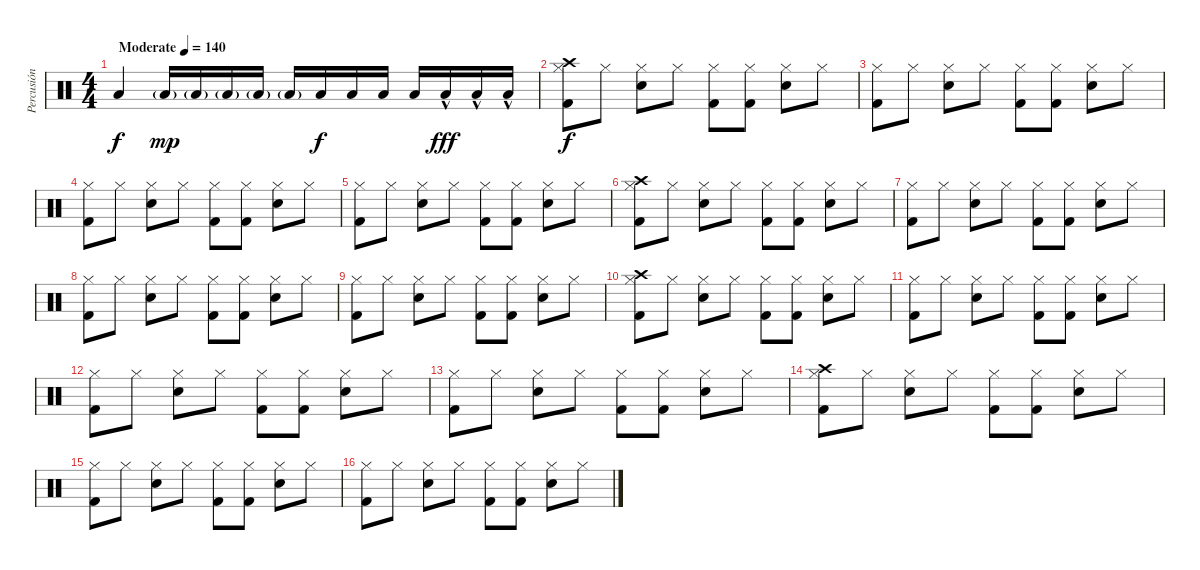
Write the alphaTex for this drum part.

\track ("Percusión" "Percusión") {instrument percussion}
\staff {score}
\articulation defaults
\ts (4 4)
\tempo (140 "Moderate")
\clef neutral
\ks c "Low Floor Tom (hit)".4{dy f} "Low Floor Tom (hit)"{g}.16{dy mp} "Low Floor Tom (hit)"{g}.16 "Low Floor Tom (hit)"{g}.16 "Low Floor Tom (hit)"{g}.16 "Low Floor Tom (hit)"{g}.16 "Low Floor Tom (hit)".16{dy f} "Low Floor Tom (hit)".16 "Low Floor Tom (hit)".16 "Low Floor Tom (hit)".16 "Low Floor Tom (hit)"{hac}.16{dy fff} "Low Floor Tom (hit)"{hac}.16 "Low Floor Tom (hit)"{hac}.16
|
("Crash high (hit)" "Hi-Hat (closed)" "Kick (hit) 2").8{dy f} "Hi-Hat (closed)".8 ("Hi-Hat (closed)" "Snare (hit) 2").8 "Hi-Hat (closed)".8 ("Hi-Hat (closed)" "Kick (hit) 2").8 ("Hi-Hat (closed)" "Kick (hit) 2").8 ("Hi-Hat (closed)" "Snare (hit) 2").8 "Hi-Hat (closed)".8 |
("Hi-Hat (closed)" "Kick (hit) 2").8 "Hi-Hat (closed)".8 ("Hi-Hat (closed)" "Snare (hit) 2").8 "Hi-Hat (closed)".8 ("Hi-Hat (closed)" "Kick (hit) 2").8 ("Hi-Hat (closed)" "Kick (hit) 2").8 ("Hi-Hat (closed)" "Snare (hit) 2").8 "Hi-Hat (closed)".8 |
("Hi-Hat (closed)" "Kick (hit) 2").8 "Hi-Hat (closed)".8 ("Hi-Hat (closed)" "Snare (hit) 2").8 "Hi-Hat (closed)".8 ("Hi-Hat (closed)" "Kick (hit) 2").8 ("Hi-Hat (closed)" "Kick (hit) 2").8 ("Hi-Hat (closed)" "Snare (hit) 2").8 "Hi-Hat (closed)".8 |
("Hi-Hat (closed)" "Kick (hit) 2").8 "Hi-Hat (closed)".8 ("Hi-Hat (closed)" "Snare (hit) 2").8 "Hi-Hat (closed)".8 ("Hi-Hat (closed)" "Kick (hit) 2").8 ("Hi-Hat (closed)" "Kick (hit) 2").8 ("Hi-Hat (closed)" "Snare (hit) 2").8 "Hi-Hat (closed)".8 |
("Crash high (hit)" "Hi-Hat (closed)" "Kick (hit) 2").8 "Hi-Hat (closed)".8 ("Hi-Hat (closed)" "Snare (hit) 2").8 "Hi-Hat (closed)".8 ("Hi-Hat (closed)" "Kick (hit) 2").8 ("Hi-Hat (closed)" "Kick (hit) 2").8 ("Hi-Hat (closed)" "Snare (hit) 2").8 "Hi-Hat (closed)".8 |
("Hi-Hat (closed)" "Kick (hit) 2").8 "Hi-Hat (closed)".8 ("Hi-Hat (closed)" "Snare (hit) 2").8 "Hi-Hat (closed)".8 ("Hi-Hat (closed)" "Kick (hit) 2").8 ("Hi-Hat (closed)" "Kick (hit) 2").8 ("Hi-Hat (closed)" "Snare (hit) 2").8 "Hi-Hat (closed)".8 |
("Hi-Hat (closed)" "Kick (hit) 2").8 "Hi-Hat (closed)".8 ("Hi-Hat (closed)" "Snare (hit) 2").8 "Hi-Hat (closed)".8 ("Hi-Hat (closed)" "Kick (hit) 2").8 ("Hi-Hat (closed)" "Kick (hit) 2").8 ("Hi-Hat (closed)" "Snare (hit) 2").8 "Hi-Hat (closed)".8 |
("Hi-Hat (closed)" "Kick (hit) 2").8 "Hi-Hat (closed)".8 ("Hi-Hat (closed)" "Snare (hit) 2").8 "Hi-Hat (closed)".8 ("Hi-Hat (closed)" "Kick (hit) 2").8 ("Hi-Hat (closed)" "Kick (hit) 2").8 ("Hi-Hat (closed)" "Snare (hit) 2").8 "Hi-Hat (closed)".8 |
("Crash high (hit)" "Hi-Hat (closed)" "Kick (hit) 2").8 "Hi-Hat (closed)".8 ("Hi-Hat (closed)" "Snare (hit) 2").8 "Hi-Hat (closed)".8 ("Hi-Hat (closed)" "Kick (hit) 2").8 ("Hi-Hat (closed)" "Kick (hit) 2").8 ("Hi-Hat (closed)" "Snare (hit) 2").8 "Hi-Hat (closed)".8 |
("Hi-Hat (closed)" "Kick (hit) 2").8 "Hi-Hat (closed)".8 ("Hi-Hat (closed)" "Snare (hit) 2").8 "Hi-Hat (closed)".8 ("Hi-Hat (closed)" "Kick (hit) 2").8 ("Hi-Hat (closed)" "Kick (hit) 2").8 ("Hi-Hat (closed)" "Snare (hit) 2").8 "Hi-Hat (closed)".8 |
("Hi-Hat (closed)" "Kick (hit) 2").8 "Hi-Hat (closed)".8 ("Hi-Hat (closed)" "Snare (hit) 2").8 "Hi-Hat (closed)".8 ("Hi-Hat (closed)" "Kick (hit) 2").8 ("Hi-Hat (closed)" "Kick (hit) 2").8 ("Hi-Hat (closed)" "Snare (hit) 2").8 "Hi-Hat (closed)".8 |
("Hi-Hat (closed)" "Kick (hit) 2").8 "Hi-Hat (closed)".8 ("Hi-Hat (closed)" "Snare (hit) 2").8 "Hi-Hat (closed)".8 ("Hi-Hat (closed)" "Kick (hit) 2").8 ("Hi-Hat (closed)" "Kick (hit) 2").8 ("Hi-Hat (closed)" "Snare (hit) 2").8 "Hi-Hat (closed)".8 |
("Crash high (hit)" "Hi-Hat (closed)" "Kick (hit) 2").8 "Hi-Hat (closed)".8 ("Hi-Hat (closed)" "Snare (hit) 2").8 "Hi-Hat (closed)".8 ("Hi-Hat (closed)" "Kick (hit) 2").8 ("Hi-Hat (closed)" "Kick (hit) 2").8 ("Hi-Hat (closed)" "Snare (hit) 2").8 "Hi-Hat (closed)".8 |
("Hi-Hat (closed)" "Kick (hit) 2").8 "Hi-Hat (closed)".8 ("Hi-Hat (closed)" "Snare (hit) 2").8 "Hi-Hat (closed)".8 ("Hi-Hat (closed)" "Kick (hit) 2").8 ("Hi-Hat (closed)" "Kick (hit) 2").8 ("Hi-Hat (closed)" "Snare (hit) 2").8 "Hi-Hat (closed)".8 |
("Hi-Hat (closed)" "Kick (hit) 2").8 "Hi-Hat (closed)".8 ("Hi-Hat (closed)" "Snare (hit) 2").8 "Hi-Hat (closed)".8 ("Hi-Hat (closed)" "Kick (hit) 2").8 ("Hi-Hat (closed)" "Kick (hit) 2").8 ("Hi-Hat (closed)" "Snare (hit) 2").8 "Hi-Hat (closed)".8
